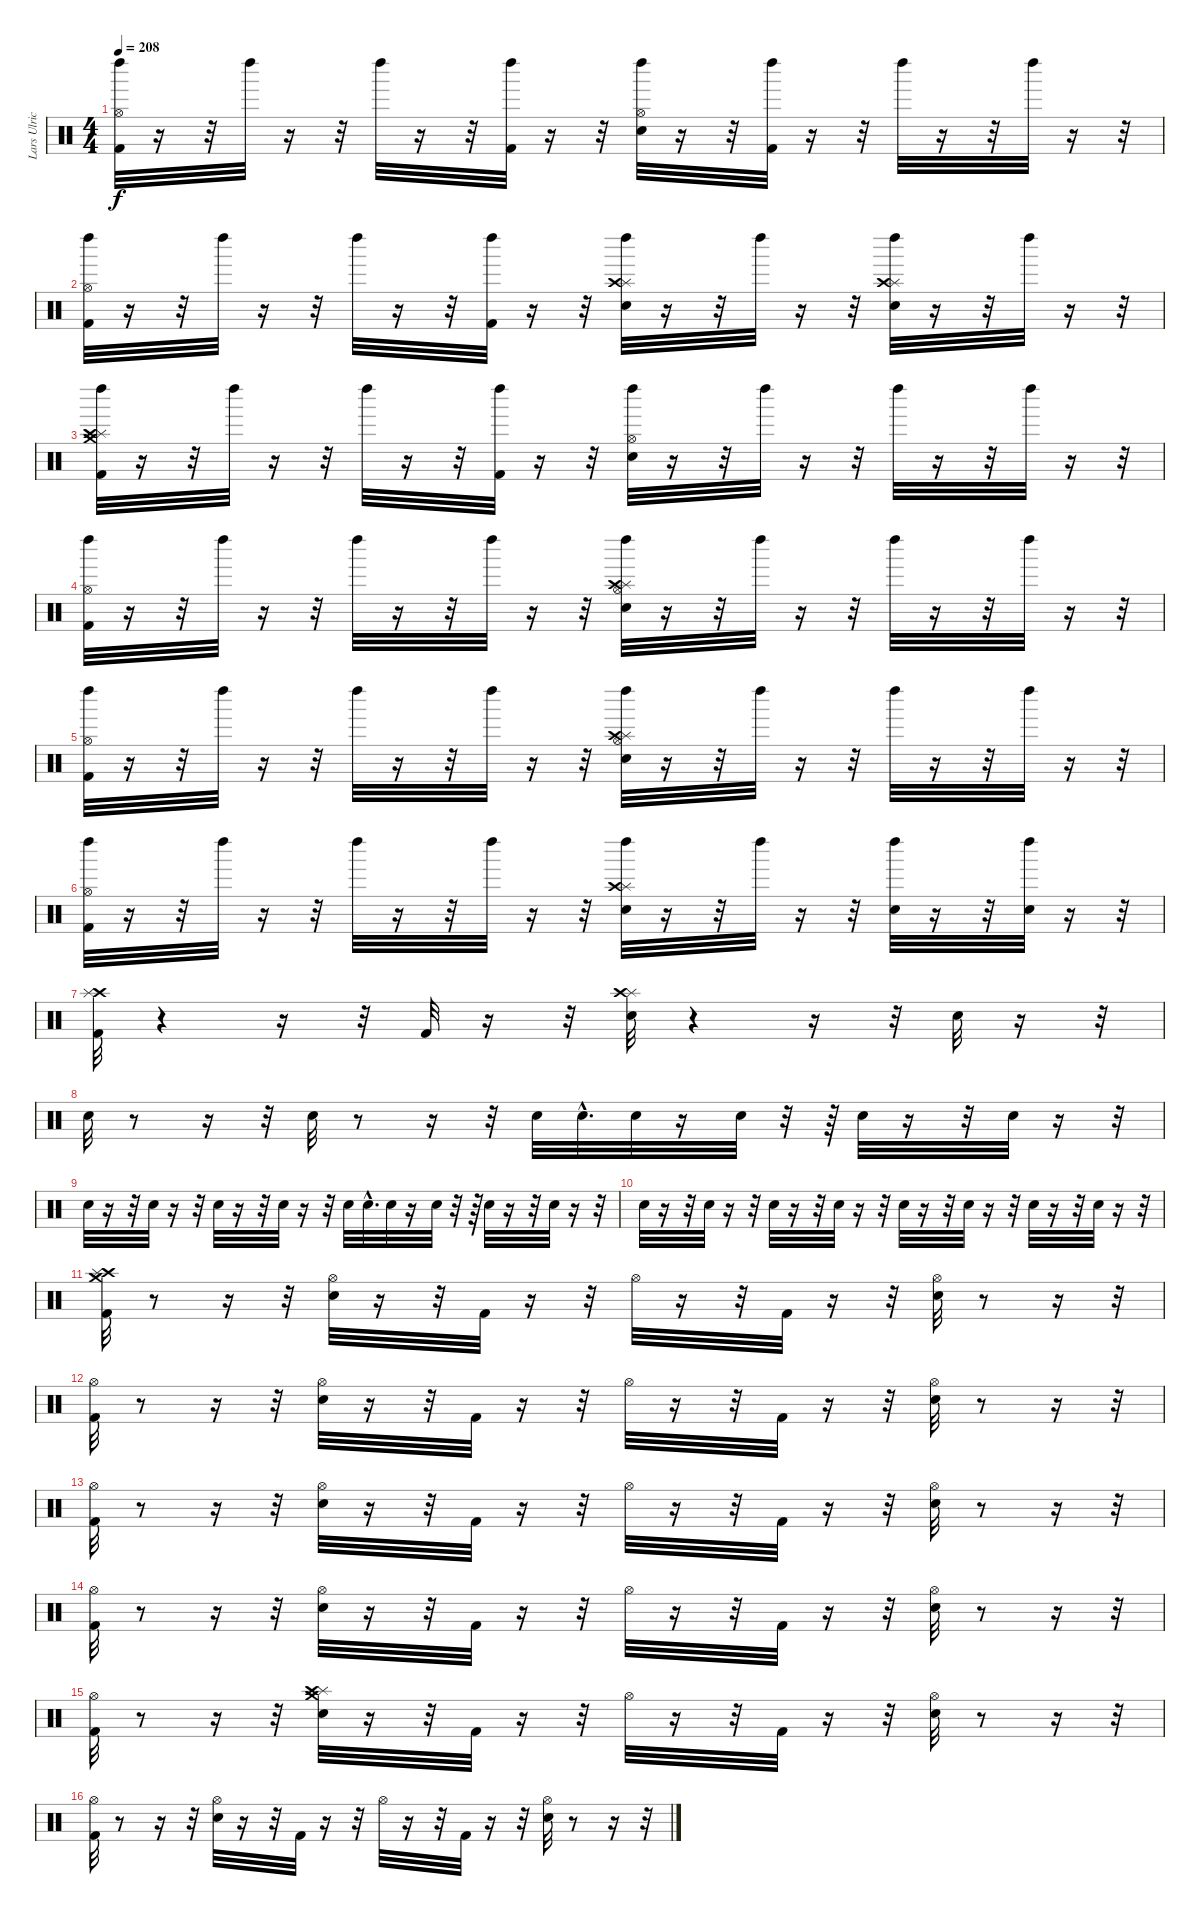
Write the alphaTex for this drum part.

\track ("Lars Ulrich (Drums)" "Lars Ulric") {instrument percussion}
\staff {score}
\articulation defaults
\ts (4 4)
\tempo 208
\clef neutral
\ks c
("Left Maraca (hit)" "Hi-Hat (open)" "Kick (hit) 2").32{dy f} r.16 r.32 "Left Maraca (hit)".32 r.16 r.32 "Left Maraca (hit)".32 r.16 r.32 ("Left Maraca (hit)" "Kick (hit) 2").32 r.16 r.32 ("Left Maraca (hit)" "Hi-Hat (open)" "Snare (hit) 2").32 r.16 r.32 ("Kick (hit) 2" "Left Maraca (hit)").32 r.16 r.32 "Left Maraca (hit)".32 r.16 r.32 "Left Maraca (hit)".32 r.16 r.32 |
("Left Maraca (hit)" "Hi-Hat (open)" "Kick (hit) 2").32 r.16 r.32 "Left Maraca (hit)".32 r.16 r.32 "Left Maraca (hit)".32 r.16 r.32 ("Left Maraca (hit)" "Kick (hit) 2").32 r.16 r.32 ("Splash (hit)" "Crash high (hit)" "Left Maraca (hit)" "Snare (hit) 2").32 r.16 r.32 "Left Maraca (hit)".32 r.16 r.32 ("Splash (hit)" "Crash high (hit)" "Snare (hit) 2" "Left Maraca (hit)").32 r.16 r.32 "Left Maraca (hit)".32 r.16 r.32 |
("Left Maraca (hit)" "Crash medium (hit)" "Splash (hit)" "Crash high (hit)" "Kick (hit) 2").32 r.16 r.32 "Left Maraca (hit)".32 r.16 r.32 "Left Maraca (hit)".32 r.16 r.32 ("Kick (hit) 2" "Left Maraca (hit)").32 r.16 r.32 ("Left Maraca (hit)" "Hi-Hat (open)" "Snare (hit) 2").32 r.16 r.32 "Left Maraca (hit)".32 r.16 r.32 "Left Maraca (hit)".32 r.16 r.32 "Left Maraca (hit)".32 r.16 r.32 |
("Left Maraca (hit)" "Hi-Hat (open)" "Kick (hit) 2").32 r.16 r.32 "Left Maraca (hit)".32 r.16 r.32 "Left Maraca (hit)".32 r.16 r.32 "Left Maraca (hit)".32 r.16 r.32 ("Splash (hit)" "Crash high (hit)" "Left Maraca (hit)" "Hi-Hat (open)" "Snare (hit) 2").32 r.16 r.32 "Left Maraca (hit)".32 r.16 r.32 "Left Maraca (hit)".32 r.16 r.32 "Left Maraca (hit)".32 r.16 r.32 |
("Left Maraca (hit)" "Hi-Hat (open)" "Kick (hit) 2").32 r.16 r.32 "Left Maraca (hit)".32 r.16 r.32 "Left Maraca (hit)".32 r.16 r.32 "Left Maraca (hit)".32 r.16 r.32 ("Splash (hit)" "Crash high (hit)" "Left Maraca (hit)" "Hi-Hat (open)" "Snare (hit) 2").32 r.16 r.32 "Left Maraca (hit)".32 r.16 r.32 "Left Maraca (hit)".32 r.16 r.32 "Left Maraca (hit)".32 r.16 r.32 |
("Left Maraca (hit)" "Hi-Hat (open)" "Kick (hit) 2").32 r.16 r.32 "Left Maraca (hit)".32 r.16 r.32 "Left Maraca (hit)".32 r.16 r.32 "Left Maraca (hit)".32 r.16 r.32 ("Splash (hit)" "Crash high (hit)" "Left Maraca (hit)" "Snare (hit) 2").32 r.16 r.32 "Left Maraca (hit)".32 r.16 r.32 ("Snare (hit) 2" "Left Maraca (hit)").32 r.16 r.32 ("Snare (hit) 2" "Left Maraca (hit)").32 r.16 r.32 |
("Kick (hit) 2" "Crash high (hit)" "Splash (hit)").32 r.4 r.16 r.32 "Kick (hit) 2".32 r.16 r.32 ("Splash (hit)" "Crash high (hit)" "Snare (hit) 2").32 r.4 r.16 r.32 "Snare (hit) 2".32 r.16 r.32 |
"Snare (hit) 2".32 r.8 r.16 r.32 "Snare (hit) 2".32 r.8 r.16 r.32 "Snare (hit) 2".32 "Snare (hit) 2"{hac}.32{d} "Snare (hit) 2".32 r.16 "Snare (hit) 2".32 r.32 r.64 "Snare (hit) 2".32 r.16 r.32 "Snare (hit) 2".32 r.16 r.32 |
"Snare (hit) 2".32 r.16 r.32 "Snare (hit) 2".32 r.16 r.32 "Snare (hit) 2".32 r.16 r.32 "Snare (hit) 2".32 r.16 r.32 "Snare (hit) 2".32 "Snare (hit) 2"{hac}.32{d} "Snare (hit) 2".32 r.16 "Snare (hit) 2".32 r.32 r.64 "Snare (hit) 2".32 r.16 r.32 "Snare (hit) 2".32 r.16 r.32 |
"Snare (hit) 2".32 r.16 r.32 "Snare (hit) 2".32 r.16 r.32 "Snare (hit) 2".32 r.16 r.32 "Snare (hit) 2".32 r.16 r.32 "Snare (hit) 2".32 r.16 r.32 "Snare (hit) 2".32 r.16 r.32 "Snare (hit) 2".32 r.16 r.32 "Snare (hit) 2".32 r.16 r.32 |
("Kick (hit) 2" "Crash high (hit)" "Crash medium (hit)" "Splash (hit)").32 r.8 r.16 r.32 ("Snare (hit) 2" "Hi-Hat (open)").32 r.16 r.32 "Kick (hit) 2".32 r.16 r.32 "Hi-Hat (open)".32 r.16 r.32 "Kick (hit) 2".32 r.16 r.32 ("Snare (hit) 2" "Hi-Hat (open)").32 r.8 r.16 r.32 |
("Kick (hit) 2" "Hi-Hat (open)").32 r.8 r.16 r.32 ("Snare (hit) 2" "Hi-Hat (open)").32 r.16 r.32 "Kick (hit) 2".32 r.16 r.32 "Hi-Hat (open)".32 r.16 r.32 "Kick (hit) 2".32 r.16 r.32 ("Snare (hit) 2" "Hi-Hat (open)").32 r.8 r.16 r.32 |
("Kick (hit) 2" "Hi-Hat (open)").32 r.8 r.16 r.32 ("Snare (hit) 2" "Hi-Hat (open)").32 r.16 r.32 "Kick (hit) 2".32 r.16 r.32 "Hi-Hat (open)".32 r.16 r.32 "Kick (hit) 2".32 r.16 r.32 ("Snare (hit) 2" "Hi-Hat (open)").32 r.8 r.16 r.32 |
("Kick (hit) 2" "Hi-Hat (open)").32 r.8 r.16 r.32 ("Snare (hit) 2" "Hi-Hat (open)").32 r.16 r.32 "Kick (hit) 2".32 r.16 r.32 "Hi-Hat (open)".32 r.16 r.32 "Kick (hit) 2".32 r.16 r.32 ("Snare (hit) 2" "Hi-Hat (open)").32 r.8 r.16 r.32 |
("Kick (hit) 2" "Hi-Hat (open)").32 r.8 r.16 r.32 ("Splash (hit)" "Crash medium (hit)" "Crash high (hit)" "Snare (hit) 2").32 r.16 r.32 "Kick (hit) 2".32 r.16 r.32 "Hi-Hat (open)".32 r.16 r.32 "Kick (hit) 2".32 r.16 r.32 ("Snare (hit) 2" "Hi-Hat (open)").32 r.8 r.16 r.32 |
("Kick (hit) 2" "Hi-Hat (open)").32 r.8 r.16 r.32 ("Snare (hit) 2" "Hi-Hat (open)").32 r.16 r.32 "Kick (hit) 2".32 r.16 r.32 "Hi-Hat (open)".32 r.16 r.32 "Kick (hit) 2".32 r.16 r.32 ("Snare (hit) 2" "Hi-Hat (open)").32 r.8 r.16 r.32
